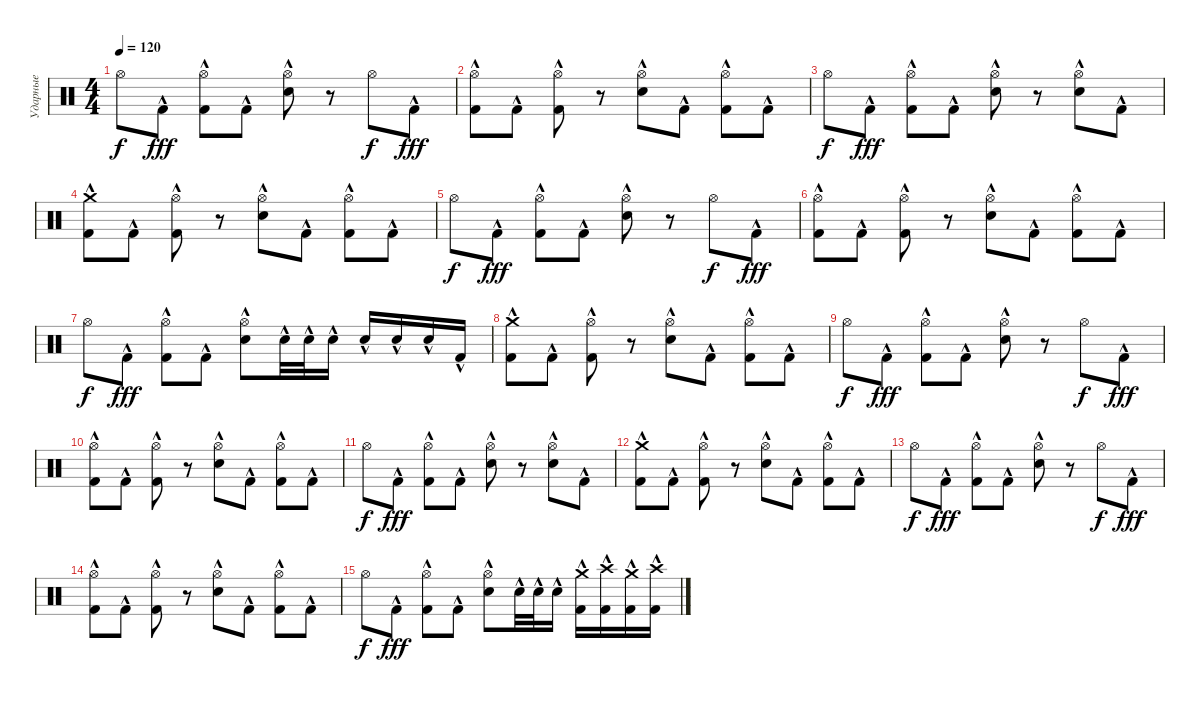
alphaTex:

\track ("Ударные" "Ударные") {instrument percussion}
\staff
\articulation defaults
\ts (4 4)
\tempo 120
\clef neutral
\ks c "Hi-Hat (open)".8{dy f} "Kick (hit) 2"{hac}.8{dy fff}
("Hi-Hat (open)" "Kick (hit) 2"{hac}).8 "Kick (hit) 2"{hac}.8 ("Hi-Hat (open)" "Snare (hit) 2"{hac}).8 r.8 "Hi-Hat (open)".8{dy f} "Kick (hit) 2"{hac}.8{dy fff} |
("Hi-Hat (open)" "Kick (hit) 2"{hac}).8 "Kick (hit) 2"{hac}.8 ("Hi-Hat (open)" "Kick (hit) 2"{hac}).8 r.8 ("Hi-Hat (open)" "Snare (hit) 2"{hac}).8 "Kick (hit) 2"{hac}.8 ("Hi-Hat (open)" "Kick (hit) 2"{hac}).8 "Kick (hit) 2"{hac}.8 |
"Hi-Hat (open)".8{dy f} "Kick (hit) 2"{hac}.8{dy fff} ("Hi-Hat (open)" "Kick (hit) 2"{hac}).8 "Kick (hit) 2"{hac}.8 ("Hi-Hat (open)" "Snare (hit) 2"{hac}).8 r.8 ("Hi-Hat (open)" "Snare (hit) 2"{hac}).8 "Kick (hit) 2"{hac}.8 |
("Crash medium (hit)" "Kick (hit) 2"{hac}).8 "Kick (hit) 2"{hac}.8 ("Hi-Hat (open)" "Kick (hit) 2"{hac}).8 r.8 ("Hi-Hat (open)" "Snare (hit) 2"{hac}).8 "Kick (hit) 2"{hac}.8 ("Hi-Hat (open)" "Kick (hit) 2"{hac}).8 "Kick (hit) 2"{hac}.8 |
"Hi-Hat (open)".8{dy f} "Kick (hit) 2"{hac}.8{dy fff} ("Hi-Hat (open)" "Kick (hit) 2"{hac}).8 "Kick (hit) 2"{hac}.8 ("Hi-Hat (open)" "Snare (hit) 2"{hac}).8 r.8 "Hi-Hat (open)".8{dy f} "Kick (hit) 2"{hac}.8{dy fff} |
("Hi-Hat (open)" "Kick (hit) 2"{hac}).8 "Kick (hit) 2"{hac}.8 ("Hi-Hat (open)" "Kick (hit) 2"{hac}).8 r.8 ("Hi-Hat (open)" "Snare (hit) 2"{hac}).8 "Kick (hit) 2"{hac}.8 ("Hi-Hat (open)" "Kick (hit) 2"{hac}).8 "Kick (hit) 2"{hac}.8 |
"Hi-Hat (open)".8{dy f} "Kick (hit) 2"{hac}.8{dy fff} ("Hi-Hat (open)" "Kick (hit) 2"{hac}).8 "Kick (hit) 2"{hac}.8 ("Hi-Hat (open)" "Snare (hit) 2"{hac}).8 "Snare (hit) 2"{hac}.32 "Snare (hit) 2"{hac}.32 "Snare (hit) 2"{hac}.16 "Snare (hit) 2"{hac}.16 "Snare (hit) 2"{hac}.16 "Snare (hit) 2"{hac}.16 "Kick (hit) 2"{hac}.16 |
("Crash medium (hit)" "Kick (hit) 2"{hac}).8 "Kick (hit) 2"{hac}.8 ("Hi-Hat (open)" "Kick (hit) 2"{hac}).8 r.8 ("Hi-Hat (open)" "Snare (hit) 2"{hac}).8 "Kick (hit) 2"{hac}.8 ("Hi-Hat (open)" "Kick (hit) 2"{hac}).8 "Kick (hit) 2"{hac}.8 |
"Hi-Hat (open)".8{dy f} "Kick (hit) 2"{hac}.8{dy fff} ("Hi-Hat (open)" "Kick (hit) 2"{hac}).8 "Kick (hit) 2"{hac}.8 ("Hi-Hat (open)" "Snare (hit) 2"{hac}).8 r.8 "Hi-Hat (open)".8{dy f} "Kick (hit) 2"{hac}.8{dy fff} |
("Hi-Hat (open)" "Kick (hit) 2"{hac}).8 "Kick (hit) 2"{hac}.8 ("Hi-Hat (open)" "Kick (hit) 2"{hac}).8 r.8 ("Hi-Hat (open)" "Snare (hit) 2"{hac}).8 "Kick (hit) 2"{hac}.8 ("Hi-Hat (open)" "Kick (hit) 2"{hac}).8 "Kick (hit) 2"{hac}.8 |
"Hi-Hat (open)".8{dy f} "Kick (hit) 2"{hac}.8{dy fff} ("Hi-Hat (open)" "Kick (hit) 2"{hac}).8 "Kick (hit) 2"{hac}.8 ("Hi-Hat (open)" "Snare (hit) 2"{hac}).8 r.8 ("Hi-Hat (open)" "Snare (hit) 2"{hac}).8 "Kick (hit) 2"{hac}.8 |
("Crash medium (hit)" "Kick (hit) 2"{hac}).8 "Kick (hit) 2"{hac}.8 ("Hi-Hat (open)" "Kick (hit) 2"{hac}).8 r.8 ("Hi-Hat (open)" "Snare (hit) 2"{hac}).8 "Kick (hit) 2"{hac}.8 ("Hi-Hat (open)" "Kick (hit) 2"{hac}).8 "Kick (hit) 2"{hac}.8 |
"Hi-Hat (open)".8{dy f} "Kick (hit) 2"{hac}.8{dy fff} ("Hi-Hat (open)" "Kick (hit) 2"{hac}).8 "Kick (hit) 2"{hac}.8 ("Hi-Hat (open)" "Snare (hit) 2"{hac}).8 r.8 "Hi-Hat (open)".8{dy f} "Kick (hit) 2"{hac}.8{dy fff} |
("Hi-Hat (open)" "Kick (hit) 2"{hac}).8 "Kick (hit) 2"{hac}.8 ("Hi-Hat (open)" "Kick (hit) 2"{hac}).8 r.8 ("Hi-Hat (open)" "Snare (hit) 2"{hac}).8 "Kick (hit) 2"{hac}.8 ("Hi-Hat (open)" "Kick (hit) 2"{hac}).8 "Kick (hit) 2"{hac}.8 |
"Hi-Hat (open)".8{dy f} "Kick (hit) 2"{hac}.8{dy fff} ("Hi-Hat (open)" "Kick (hit) 2"{hac}).8 "Kick (hit) 2"{hac}.8 ("Hi-Hat (open)" "Snare (hit) 2"{hac}).8 "Snare (hit) 2"{hac}.32 "Snare (hit) 2"{hac}.32 "Snare (hit) 2"{hac}.16 ("Crash medium (hit)" "Kick (hit) 2"{hac}).16 ("Crash high (hit)" "Kick (hit) 2"{hac}).16 ("Crash medium (hit)" "Kick (hit) 2"{hac}).16 ("Crash high (hit)" "Kick (hit) 2"{hac}).16
